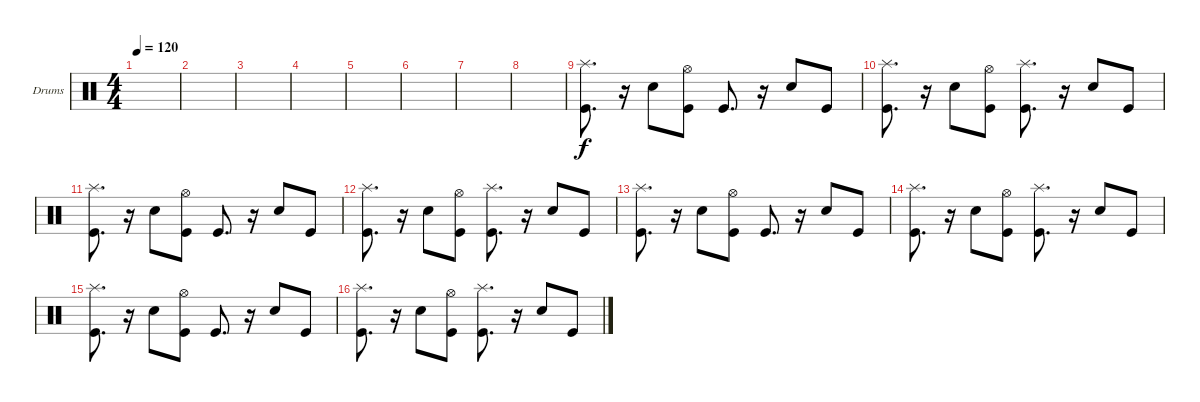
\defaultSystemsLayout 4
\bracketExtendMode groupsimilarinstruments
\firstSystemTrackNameOrientation horizontal
\otherSystemsTrackNameOrientation horizontal
\track ("Drumkit" "Drums") {instrument percussion}
\staff {score}
\articulation defaults
\ts (4 4)
\tempo 120
\clef neutral
\ks c
|
|
|
|
|
|
|
|
("Kick (hit)" "Splash (hit)").8{d} r.16 "Snare (hit) 2".8 ("Kick (hit)" "Hi-Hat (open)").8 "Kick (hit)".8{d} r.16 "Snare (hit) 2".8 "Kick (hit)".8 |
("Kick (hit)" "Splash (hit)").8{d} r.16 "Snare (hit) 2".8 ("Kick (hit)" "Hi-Hat (open)").8 ("Kick (hit)" "Splash (hit)").8{d} r.16 "Snare (hit) 2".8 "Kick (hit)".8 |
("Kick (hit)" "Splash (hit)").8{d} r.16 "Snare (hit) 2".8 ("Kick (hit)" "Hi-Hat (open)").8 "Kick (hit)".8{d} r.16 "Snare (hit) 2".8 "Kick (hit)".8 |
("Kick (hit)" "Splash (hit)").8{d} r.16 "Snare (hit) 2".8 ("Kick (hit)" "Hi-Hat (open)").8 ("Kick (hit)" "Splash (hit)").8{d} r.16 "Snare (hit) 2".8 "Kick (hit)".8 |
("Kick (hit)" "Splash (hit)").8{d} r.16 "Snare (hit) 2".8 ("Kick (hit)" "Hi-Hat (open)").8 "Kick (hit)".8{d} r.16 "Snare (hit) 2".8 "Kick (hit)".8 |
("Kick (hit)" "Splash (hit)").8{d} r.16 "Snare (hit) 2".8 ("Kick (hit)" "Hi-Hat (open)").8 ("Kick (hit)" "Splash (hit)").8{d} r.16 "Snare (hit) 2".8 "Kick (hit)".8 |
("Kick (hit)" "Splash (hit)").8{d} r.16 "Snare (hit) 2".8 ("Kick (hit)" "Hi-Hat (open)").8 "Kick (hit)".8{d} r.16 "Snare (hit) 2".8 "Kick (hit)".8 |
("Kick (hit)" "Splash (hit)").8{d} r.16 "Snare (hit) 2".8 ("Kick (hit)" "Hi-Hat (open)").8 ("Kick (hit)" "Splash (hit)").8{d} r.16 "Snare (hit) 2".8 "Kick (hit)".8
